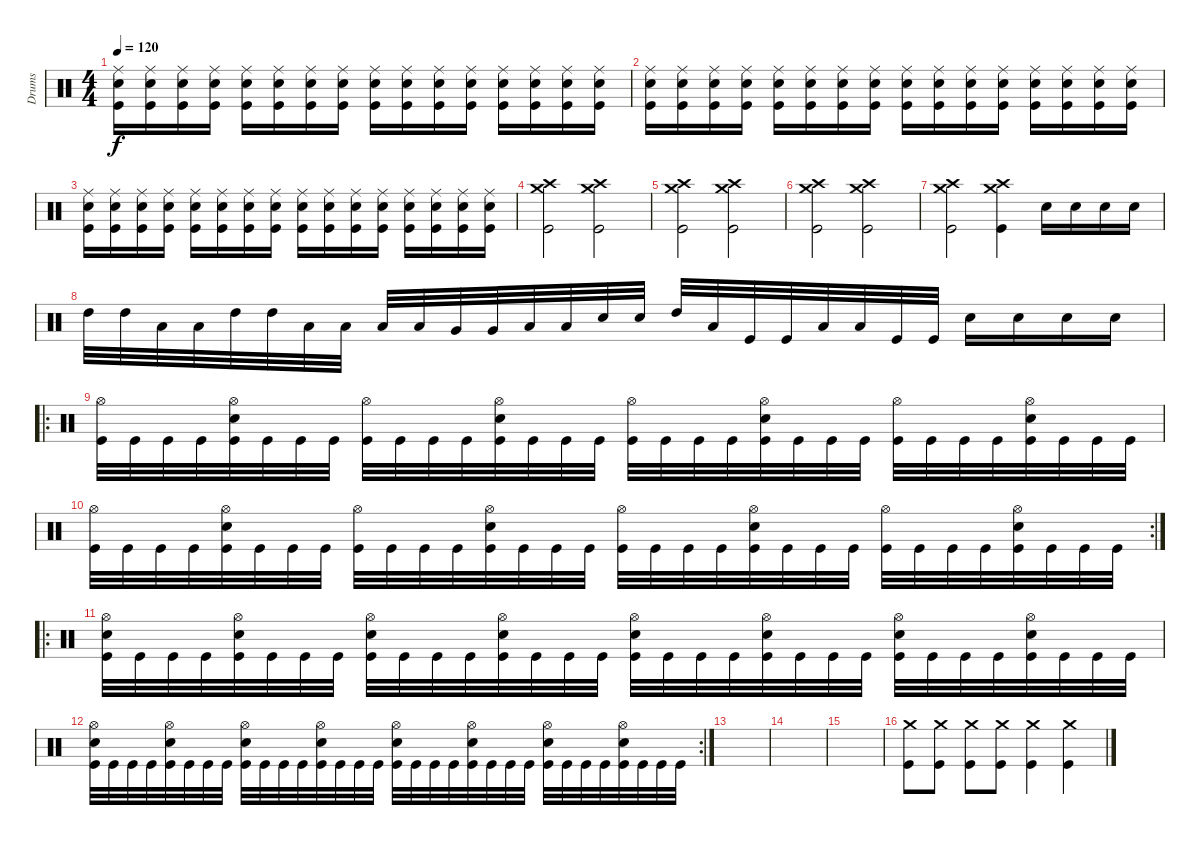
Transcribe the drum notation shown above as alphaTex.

\track ("Drums" "Drums") {instrument percussion}
\staff {score}
\articulation defaults
\ts (4 4)
\tempo 120
\clef neutral
\ks c
("Ride (middle)" "Snare (hit) 2" "Kick (hit)").16{dy f} ("Ride (middle)" "Snare (hit) 2" "Kick (hit)").16 ("Ride (middle)" "Snare (hit) 2" "Kick (hit)").16 ("Ride (middle)" "Snare (hit) 2" "Kick (hit)").16 ("Ride (middle)" "Snare (hit) 2" "Kick (hit)").16 ("Ride (middle)" "Snare (hit) 2" "Kick (hit)").16 ("Ride (middle)" "Snare (hit) 2" "Kick (hit)").16 ("Ride (middle)" "Snare (hit) 2" "Kick (hit)").16 ("Ride (middle)" "Snare (hit) 2" "Kick (hit)").16 ("Ride (middle)" "Snare (hit) 2" "Kick (hit)").16 ("Ride (middle)" "Snare (hit) 2" "Kick (hit)").16 ("Ride (middle)" "Snare (hit) 2" "Kick (hit)").16 ("Ride (middle)" "Snare (hit) 2" "Kick (hit)").16 ("Ride (middle)" "Snare (hit) 2" "Kick (hit)").16 ("Ride (middle)" "Snare (hit) 2" "Kick (hit)").16 ("Ride (middle)" "Snare (hit) 2" "Kick (hit)").16 |
("Ride (middle)" "Snare (hit) 2" "Kick (hit)").16 ("Ride (middle)" "Snare (hit) 2" "Kick (hit)").16 ("Ride (middle)" "Snare (hit) 2" "Kick (hit)").16 ("Ride (middle)" "Snare (hit) 2" "Kick (hit)").16 ("Ride (middle)" "Snare (hit) 2" "Kick (hit)").16 ("Ride (middle)" "Snare (hit) 2" "Kick (hit)").16 ("Ride (middle)" "Snare (hit) 2" "Kick (hit)").16 ("Ride (middle)" "Snare (hit) 2" "Kick (hit)").16 ("Ride (middle)" "Snare (hit) 2" "Kick (hit)").16 ("Ride (middle)" "Snare (hit) 2" "Kick (hit)").16 ("Ride (middle)" "Snare (hit) 2" "Kick (hit)").16 ("Ride (middle)" "Snare (hit) 2" "Kick (hit)").16 ("Ride (middle)" "Snare (hit) 2" "Kick (hit)").16 ("Ride (middle)" "Snare (hit) 2" "Kick (hit)").16 ("Ride (middle)" "Snare (hit) 2" "Kick (hit)").16 ("Ride (middle)" "Snare (hit) 2" "Kick (hit)").16 |
("Ride (middle)" "Snare (hit) 2" "Kick (hit)").16 ("Ride (middle)" "Snare (hit) 2" "Kick (hit)").16 ("Ride (middle)" "Snare (hit) 2" "Kick (hit)").16 ("Ride (middle)" "Snare (hit) 2" "Kick (hit)").16 ("Ride (middle)" "Snare (hit) 2" "Kick (hit)").16 ("Ride (middle)" "Snare (hit) 2" "Kick (hit)").16 ("Ride (middle)" "Snare (hit) 2" "Kick (hit)").16 ("Ride (middle)" "Snare (hit) 2" "Kick (hit)").16 ("Ride (middle)" "Snare (hit) 2" "Kick (hit)").16 ("Ride (middle)" "Snare (hit) 2" "Kick (hit)").16 ("Ride (middle)" "Snare (hit) 2" "Kick (hit)").16 ("Ride (middle)" "Snare (hit) 2" "Kick (hit)").16 ("Ride (middle)" "Snare (hit) 2" "Kick (hit)").16 ("Ride (middle)" "Snare (hit) 2" "Kick (hit)").16 ("Ride (middle)" "Snare (hit) 2" "Kick (hit)").16 ("Ride (middle)" "Snare (hit) 2" "Kick (hit)").16 |
("Crash medium (hit)" "Crash high (hit)" "Kick (hit)").2 ("Crash medium (hit)" "Crash high (hit)" "Kick (hit)").2 |
("Crash medium (hit)" "Crash high (hit)" "Kick (hit)").2 ("Crash medium (hit)" "Crash high (hit)" "Kick (hit)").2 |
("Crash medium (hit)" "Crash high (hit)" "Kick (hit)").2 ("Crash medium (hit)" "Crash high (hit)" "Kick (hit)").2 |
("Crash medium (hit)" "Crash high (hit)" "Kick (hit)").2 ("Crash medium (hit)" "Crash high (hit)" "Kick (hit)").4 "Snare (hit) 2".16 "Snare (hit) 2".16 "Snare (hit) 2".16 "Snare (hit) 2".16 |
"High Tom (hit)".32 "High Tom (hit)".32 "Low Tom (hit)".32 "Low Tom (hit)".32 "High Tom (hit)".32 "High Tom (hit)".32 "Low Tom (hit)".32 "Low Tom (hit)".32 "Low Floor Tom (hit)".32 "Low Floor Tom (hit)".32 "Very Low Tom (hit)".32 "Very Low Tom (hit)".32 "Low Tom (hit)".32 "Low Tom (hit)".32 "Snare (hit) 2".32 "Snare (hit) 2".32 "High Tom (hit)".32 "Low Floor Tom (hit)".32 "Kick (hit)".32 "Kick (hit)".32 "Low Tom (hit)".32 "Low Floor Tom (hit)".32 "Kick (hit)".32 "Kick (hit)".32 "Snare (hit) 2".16 "Snare (hit) 2".16 "Snare (hit) 2".16 "Snare (hit) 2".16 |
\ro
("Hi-Hat (open)" "Kick (hit)").32 "Kick (hit)".32 "Kick (hit)".32 "Kick (hit)".32 ("Hi-Hat (open)" "Snare (hit) 2" "Kick (hit)").32 "Kick (hit)".32 "Kick (hit)".32 "Kick (hit)".32 ("Hi-Hat (open)" "Kick (hit)").32 "Kick (hit)".32 "Kick (hit)".32 "Kick (hit)".32 ("Hi-Hat (open)" "Snare (hit) 2" "Kick (hit)").32 "Kick (hit)".32 "Kick (hit)".32 "Kick (hit)".32 ("Hi-Hat (open)" "Kick (hit)").32 "Kick (hit)".32 "Kick (hit)".32 "Kick (hit)".32 ("Hi-Hat (open)" "Snare (hit) 2" "Kick (hit)").32 "Kick (hit)".32 "Kick (hit)".32 "Kick (hit)".32 ("Hi-Hat (open)" "Kick (hit)").32 "Kick (hit)".32 "Kick (hit)".32 "Kick (hit)".32 ("Hi-Hat (open)" "Snare (hit) 2" "Kick (hit)").32 "Kick (hit)".32 "Kick (hit)".32 "Kick (hit)".32 |
\rc 2
("Hi-Hat (open)" "Kick (hit)").32 "Kick (hit)".32 "Kick (hit)".32 "Kick (hit)".32 ("Hi-Hat (open)" "Snare (hit) 2" "Kick (hit)").32 "Kick (hit)".32 "Kick (hit)".32 "Kick (hit)".32 ("Hi-Hat (open)" "Kick (hit)").32 "Kick (hit)".32 "Kick (hit)".32 "Kick (hit)".32 ("Hi-Hat (open)" "Snare (hit) 2" "Kick (hit)").32 "Kick (hit)".32 "Kick (hit)".32 "Kick (hit)".32 ("Hi-Hat (open)" "Kick (hit)").32 "Kick (hit)".32 "Kick (hit)".32 "Kick (hit)".32 ("Hi-Hat (open)" "Snare (hit) 2" "Kick (hit)").32 "Kick (hit)".32 "Kick (hit)".32 "Kick (hit)".32 ("Hi-Hat (open)" "Kick (hit)").32 "Kick (hit)".32 "Kick (hit)".32 "Kick (hit)".32 ("Hi-Hat (open)" "Snare (hit) 2" "Kick (hit)").32 "Kick (hit)".32 "Kick (hit)".32 "Kick (hit)".32 |
\ro
("Hi-Hat (open)" "Snare (hit) 2" "Kick (hit)").32 "Kick (hit)".32 "Kick (hit)".32 "Kick (hit)".32 ("Hi-Hat (open)" "Snare (hit) 2" "Kick (hit)").32 "Kick (hit)".32 "Kick (hit)".32 "Kick (hit)".32 ("Hi-Hat (open)" "Snare (hit) 2" "Kick (hit)").32 "Kick (hit)".32 "Kick (hit)".32 "Kick (hit)".32 ("Hi-Hat (open)" "Snare (hit) 2" "Kick (hit)").32 "Kick (hit)".32 "Kick (hit)".32 "Kick (hit)".32 ("Hi-Hat (open)" "Snare (hit) 2" "Kick (hit)").32 "Kick (hit)".32 "Kick (hit)".32 "Kick (hit)".32 ("Hi-Hat (open)" "Snare (hit) 2" "Kick (hit)").32 "Kick (hit)".32 "Kick (hit)".32 "Kick (hit)".32 ("Hi-Hat (open)" "Snare (hit) 2" "Kick (hit)").32 "Kick (hit)".32 "Kick (hit)".32 "Kick (hit)".32 ("Hi-Hat (open)" "Snare (hit) 2" "Kick (hit)").32 "Kick (hit)".32 "Kick (hit)".32 "Kick (hit)".32 |
\rc 2
("Hi-Hat (open)" "Snare (hit) 2" "Kick (hit)").32 "Kick (hit)".32 "Kick (hit)".32 "Kick (hit)".32 ("Hi-Hat (open)" "Snare (hit) 2" "Kick (hit)").32 "Kick (hit)".32 "Kick (hit)".32 "Kick (hit)".32 ("Hi-Hat (open)" "Snare (hit) 2" "Kick (hit)").32 "Kick (hit)".32 "Kick (hit)".32 "Kick (hit)".32 ("Hi-Hat (open)" "Snare (hit) 2" "Kick (hit)").32 "Kick (hit)".32 "Kick (hit)".32 "Kick (hit)".32 ("Hi-Hat (open)" "Snare (hit) 2" "Kick (hit)").32 "Kick (hit)".32 "Kick (hit)".32 "Kick (hit)".32 ("Hi-Hat (open)" "Snare (hit) 2" "Kick (hit)").32 "Kick (hit)".32 "Kick (hit)".32 "Kick (hit)".32 ("Hi-Hat (open)" "Snare (hit) 2" "Kick (hit)").32 "Kick (hit)".32 "Kick (hit)".32 "Kick (hit)".32 ("Hi-Hat (open)" "Snare (hit) 2" "Kick (hit)").32 "Kick (hit)".32 "Kick (hit)".32 "Kick (hit)".32 |
|
|
|
("Crash medium (hit)" "Kick (hit)").8 ("Crash medium (hit)" "Kick (hit)").8 ("Crash medium (hit)" "Kick (hit)").8 ("Crash medium (hit)" "Kick (hit)").8 ("Crash medium (hit)" "Kick (hit)").4 ("Crash medium (hit)" "Kick (hit)").4
